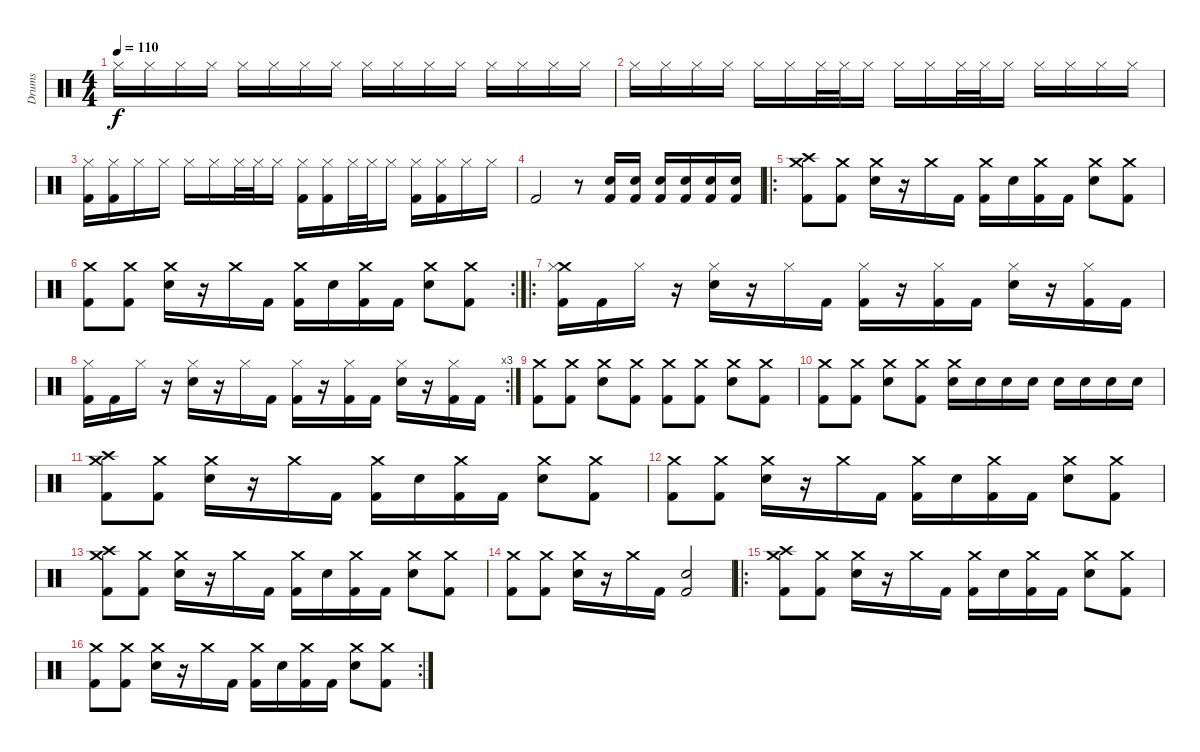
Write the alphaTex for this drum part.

\track ("Drums" "Drums") {instrument percussion}
\staff {score}
\articulation defaults
\ts (4 4)
\tempo 110
\clef neutral
\ks c "Hi-Hat (closed)".16{dy f} "Hi-Hat (closed)".16 "Hi-Hat (closed)".16 "Hi-Hat (closed)".16 "Hi-Hat (closed)".16 "Hi-Hat (closed)".16 "Hi-Hat (closed)".16 "Hi-Hat (closed)".16 "Hi-Hat (closed)".16 "Hi-Hat (closed)".16 "Hi-Hat (closed)".16 "Hi-Hat (closed)".16 "Hi-Hat (closed)".16 "Hi-Hat (closed)".16 "Hi-Hat (closed)".16 "Hi-Hat (closed)".16
|
"Hi-Hat (closed)".16 "Hi-Hat (closed)".16 "Hi-Hat (closed)".16 "Hi-Hat (closed)".16 "Hi-Hat (closed)".16 "Hi-Hat (closed)".16 "Hi-Hat (closed)".32 "Hi-Hat (closed)".32 "Hi-Hat (closed)".16 "Hi-Hat (closed)".16 "Hi-Hat (closed)".16 "Hi-Hat (closed)".32 "Hi-Hat (closed)".32 "Hi-Hat (closed)".16 "Hi-Hat (closed)".16 "Hi-Hat (closed)".16 "Hi-Hat (closed)".16 "Hi-Hat (closed)".16 |
("Hi-Hat (closed)" "Kick (hit) 2").16 ("Hi-Hat (closed)" "Kick (hit) 2").16 "Hi-Hat (closed)".16 "Hi-Hat (closed)".16 "Hi-Hat (closed)".16 "Hi-Hat (closed)".16 "Hi-Hat (closed)".32 "Hi-Hat (closed)".32 "Hi-Hat (closed)".16 ("Hi-Hat (closed)" "Kick (hit) 2").16 ("Hi-Hat (closed)" "Kick (hit) 2").16 "Hi-Hat (closed)".32 "Hi-Hat (closed)".32 "Hi-Hat (closed)".16 ("Hi-Hat (closed)" "Kick (hit) 2").16 ("Hi-Hat (closed)" "Kick (hit) 2").16 "Hi-Hat (closed)".16 "Hi-Hat (closed)".16 |
"Kick (hit) 2".2 r.8 ("Kick (hit) 2" "Electric Snare (hit)").16 ("Kick (hit) 2" "Electric Snare (hit)").16 ("Kick (hit) 2" "Electric Snare (hit)").16 ("Kick (hit) 2" "Electric Snare (hit)").16 ("Kick (hit) 2" "Electric Snare (hit)").16 ("Kick (hit) 2" "Electric Snare (hit)").16 |
\ro
("Crash high (hit)" "Crash medium (hit)" "Kick (hit) 2").8 ("Crash medium (hit)" "Kick (hit) 2").8 ("Crash medium (hit)" "Electric Snare (hit)").16 r.16 "Crash medium (hit)".16 "Kick (hit) 2".16 ("Crash medium (hit)" "Kick (hit) 2").16 "Electric Snare (hit)".16 ("Crash medium (hit)" "Kick (hit) 2").16 "Kick (hit) 2".16 ("Crash medium (hit)" "Electric Snare (hit)").8 ("Crash medium (hit)" "Kick (hit) 2").8 |
\rc 2
("Crash medium (hit)" "Kick (hit) 2").8 ("Crash medium (hit)" "Kick (hit) 2").8 ("Crash medium (hit)" "Electric Snare (hit)").16 r.16 "Crash medium (hit)".16 "Kick (hit) 2".16 ("Crash medium (hit)" "Kick (hit) 2").16 "Electric Snare (hit)".16 ("Crash medium (hit)" "Kick (hit) 2").16 "Kick (hit) 2".16 ("Crash medium (hit)" "Electric Snare (hit)").8 ("Crash medium (hit)" "Kick (hit) 2").8 |
\ro
("Crash medium (hit)" "Hi-Hat (closed)" "Kick (hit) 2").16 "Kick (hit) 2".16 "Hi-Hat (closed)".16 r.16 ("Hi-Hat (closed)" "Electric Snare (hit)").16 r.16 "Hi-Hat (closed)".16 "Kick (hit) 2".16 ("Hi-Hat (closed)" "Kick (hit) 2").16 r.16 ("Hi-Hat (closed)" "Kick (hit) 2").16 "Kick (hit) 2".16 ("Hi-Hat (closed)" "Electric Snare (hit)").16 r.16 ("Hi-Hat (closed)" "Kick (hit) 2").16 "Kick (hit) 2".16 |
\rc 3
("Hi-Hat (closed)" "Kick (hit) 2").16 "Kick (hit) 2".16 "Hi-Hat (closed)".16 r.16 ("Hi-Hat (closed)" "Electric Snare (hit)").16 r.16 "Hi-Hat (closed)".16 "Kick (hit) 2".16 ("Hi-Hat (closed)" "Kick (hit) 2").16 r.16 ("Hi-Hat (closed)" "Kick (hit) 2").16 "Kick (hit) 2".16 ("Hi-Hat (closed)" "Electric Snare (hit)").16 r.16 ("Hi-Hat (closed)" "Kick (hit) 2").16 "Kick (hit) 2".16 |
("Crash medium (hit)" "Kick (hit) 2").8 ("Crash medium (hit)" "Kick (hit) 2").8 ("Crash medium (hit)" "Electric Snare (hit)").8 ("Crash medium (hit)" "Kick (hit) 2").8 ("Crash medium (hit)" "Kick (hit) 2").8 ("Crash medium (hit)" "Kick (hit) 2").8 ("Crash medium (hit)" "Electric Snare (hit)").8 ("Crash medium (hit)" "Kick (hit) 2").8 |
("Crash medium (hit)" "Kick (hit) 2").8 ("Crash medium (hit)" "Kick (hit) 2").8 ("Crash medium (hit)" "Electric Snare (hit)").8 ("Crash medium (hit)" "Kick (hit) 2").8 ("Crash medium (hit)" "Electric Snare (hit)").16 "Electric Snare (hit)".16 "Electric Snare (hit)".16 "Electric Snare (hit)".16 "Electric Snare (hit)".16 "Electric Snare (hit)".16 "Electric Snare (hit)".16 "Electric Snare (hit)".16 |
("Crash high (hit)" "Crash medium (hit)" "Kick (hit) 2").8 ("Crash medium (hit)" "Kick (hit) 2").8 ("Crash medium (hit)" "Electric Snare (hit)").16 r.16 "Crash medium (hit)".16 "Kick (hit) 2".16 ("Crash medium (hit)" "Kick (hit) 2").16 "Electric Snare (hit)".16 ("Crash medium (hit)" "Kick (hit) 2").16 "Kick (hit) 2".16 ("Crash medium (hit)" "Electric Snare (hit)").8 ("Crash medium (hit)" "Kick (hit) 2").8 |
("Crash medium (hit)" "Kick (hit) 2").8 ("Crash medium (hit)" "Kick (hit) 2").8 ("Crash medium (hit)" "Electric Snare (hit)").16 r.16 "Crash medium (hit)".16 "Kick (hit) 2".16 ("Crash medium (hit)" "Kick (hit) 2").16 "Electric Snare (hit)".16 ("Crash medium (hit)" "Kick (hit) 2").16 "Kick (hit) 2".16 ("Crash medium (hit)" "Electric Snare (hit)").8 ("Crash medium (hit)" "Kick (hit) 2").8 |
("Crash high (hit)" "Crash medium (hit)" "Kick (hit) 2").8 ("Crash medium (hit)" "Kick (hit) 2").8 ("Crash medium (hit)" "Electric Snare (hit)").16 r.16 "Crash medium (hit)".16 "Kick (hit) 2".16 ("Crash medium (hit)" "Kick (hit) 2").16 "Electric Snare (hit)".16 ("Crash medium (hit)" "Kick (hit) 2").16 "Kick (hit) 2".16 ("Crash medium (hit)" "Electric Snare (hit)").8 ("Crash medium (hit)" "Kick (hit) 2").8 |
("Crash medium (hit)" "Kick (hit) 2").8 ("Crash medium (hit)" "Kick (hit) 2").8 ("Crash medium (hit)" "Electric Snare (hit)").16 r.16 "Crash medium (hit)".16 "Kick (hit) 2".16 ("Electric Snare (hit)" "Kick (hit) 2").2 |
\ro
("Crash high (hit)" "Crash medium (hit)" "Kick (hit) 2").8 ("Crash medium (hit)" "Kick (hit) 2").8 ("Crash medium (hit)" "Electric Snare (hit)").16 r.16 "Crash medium (hit)".16 "Kick (hit) 2".16 ("Crash medium (hit)" "Kick (hit) 2").16 "Electric Snare (hit)".16 ("Crash medium (hit)" "Kick (hit) 2").16 "Kick (hit) 2".16 ("Crash medium (hit)" "Electric Snare (hit)").8 ("Crash medium (hit)" "Kick (hit) 2").8 |
\rc 2
("Crash medium (hit)" "Kick (hit) 2").8 ("Crash medium (hit)" "Kick (hit) 2").8 ("Crash medium (hit)" "Electric Snare (hit)").16 r.16 "Crash medium (hit)".16 "Kick (hit) 2".16 ("Crash medium (hit)" "Kick (hit) 2").16 "Electric Snare (hit)".16 ("Crash medium (hit)" "Kick (hit) 2").16 "Kick (hit) 2".16 ("Crash medium (hit)" "Electric Snare (hit)").8 ("Crash medium (hit)" "Kick (hit) 2").8
